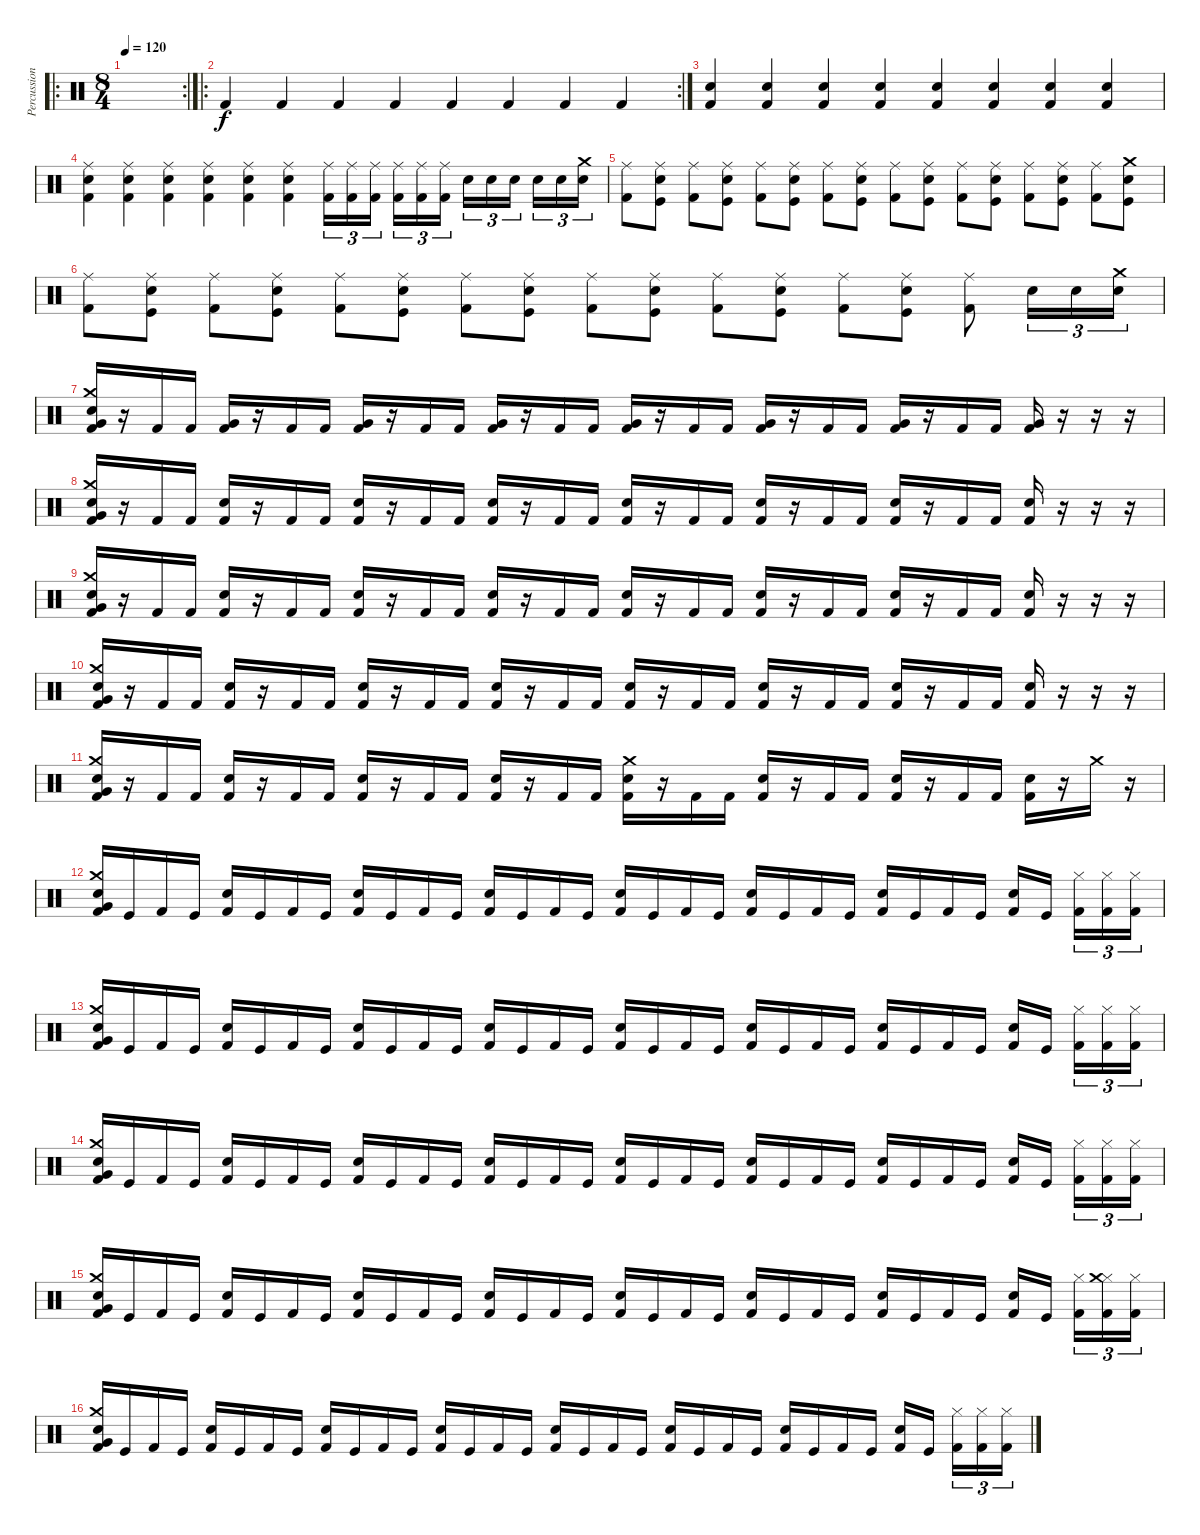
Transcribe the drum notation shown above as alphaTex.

\track ("Percussions" "Percussion") {instrument percussion}
\staff {score}
\articulation defaults
\ro
\rc 2
\ts (8 4)
\tempo 120
\clef neutral
\ks c
|
\ro
\rc 2 "Kick (hit) 2".4 "Kick (hit) 2".4 "Kick (hit) 2".4 "Kick (hit) 2".4 "Kick (hit) 2".4 "Kick (hit) 2".4 "Kick (hit) 2".4 "Kick (hit) 2".4
|
("Kick (hit) 2" "Electric Snare (hit)").4 ("Kick (hit) 2" "Electric Snare (hit)").4 ("Kick (hit) 2" "Electric Snare (hit)").4 ("Kick (hit) 2" "Electric Snare (hit)").4 ("Kick (hit) 2" "Electric Snare (hit)").4 ("Kick (hit) 2" "Electric Snare (hit)").4 ("Kick (hit) 2" "Electric Snare (hit)").4 ("Kick (hit) 2" "Electric Snare (hit)").4 |
("Kick (hit) 2" "Electric Snare (hit)" "Ride (middle)").4 ("Kick (hit) 2" "Electric Snare (hit)" "Ride (middle)").4 ("Kick (hit) 2" "Electric Snare (hit)" "Ride (middle)").4 ("Kick (hit) 2" "Electric Snare (hit)" "Ride (middle)").4 ("Kick (hit) 2" "Electric Snare (hit)" "Ride (middle)").4 ("Kick (hit) 2" "Electric Snare (hit)" "Ride (middle)").4 ("Kick (hit) 2" "Ride (middle)").16{tu (3 2)} ("Kick (hit) 2" "Ride (middle)").16{tu (3 2)} ("Kick (hit) 2" "Ride (middle)").16{tu (3 2)} ("Kick (hit) 2" "Ride (middle)").16{tu (3 2)} ("Kick (hit) 2" "Ride (middle)").16{tu (3 2)} ("Kick (hit) 2" "Ride (middle)").16{tu (3 2)} "Electric Snare (hit)".16{tu (3 2)} "Electric Snare (hit)".16{tu (3 2)} "Electric Snare (hit)".16{tu (3 2)} "Electric Snare (hit)".16{tu (3 2)} "Electric Snare (hit)".16{tu (3 2)} ("Electric Snare (hit)" "Crash medium (hit)").16{tu (3 2)} |
("Kick (hit) 2" "Ride (middle)").8 ("Electric Snare (hit)" "Ride (middle)" "Kick (hit)").8 ("Kick (hit) 2" "Ride (middle)").8 ("Electric Snare (hit)" "Ride (middle)" "Kick (hit)").8 ("Kick (hit) 2" "Ride (middle)").8 ("Electric Snare (hit)" "Ride (middle)" "Kick (hit)").8 ("Kick (hit) 2" "Ride (middle)").8 ("Electric Snare (hit)" "Ride (middle)" "Kick (hit)").8 ("Kick (hit) 2" "Ride (middle)").8 ("Electric Snare (hit)" "Ride (middle)" "Kick (hit)").8 ("Kick (hit) 2" "Ride (middle)").8 ("Electric Snare (hit)" "Ride (middle)" "Kick (hit)").8 ("Kick (hit) 2" "Ride (middle)").8 ("Electric Snare (hit)" "Ride (middle)" "Kick (hit)").8 ("Kick (hit) 2" "Ride (middle)").8 ("Electric Snare (hit)" "Crash medium (hit)" "Kick (hit)").8 |
("Kick (hit) 2" "Ride (middle)").8 ("Electric Snare (hit)" "Ride (middle)" "Kick (hit)").8 ("Kick (hit) 2" "Ride (middle)").8 ("Electric Snare (hit)" "Ride (middle)" "Kick (hit)").8 ("Kick (hit) 2" "Ride (middle)").8 ("Electric Snare (hit)" "Ride (middle)" "Kick (hit)").8 ("Kick (hit) 2" "Ride (middle)").8 ("Electric Snare (hit)" "Ride (middle)" "Kick (hit)").8 ("Kick (hit) 2" "Ride (middle)").8 ("Electric Snare (hit)" "Ride (middle)" "Kick (hit)").8 ("Kick (hit) 2" "Ride (middle)").8 ("Electric Snare (hit)" "Ride (middle)" "Kick (hit)").8 ("Kick (hit) 2" "Ride (middle)").8 ("Electric Snare (hit)" "Ride (middle)" "Kick (hit)").8 ("Kick (hit) 2" "Ride (middle)").8 "Electric Snare (hit)".16{tu (3 2)} "Electric Snare (hit)".16{tu (3 2)} ("Electric Snare (hit)" "Crash medium (hit)").16{tu (3 2)} |
("Kick (hit) 2" "Very Low Tom (hit)" "Electric Snare (hit)" "Crash medium (hit)").16 r.16 "Kick (hit) 2".16 "Kick (hit) 2".16 ("Kick (hit) 2" "Very Low Tom (hit)").16 r.16 "Kick (hit) 2".16 "Kick (hit) 2".16 ("Kick (hit) 2" "Very Low Tom (hit)").16 r.16 "Kick (hit) 2".16 "Kick (hit) 2".16 ("Kick (hit) 2" "Very Low Tom (hit)").16 r.16 "Kick (hit) 2".16 "Kick (hit) 2".16 ("Kick (hit) 2" "Very Low Tom (hit)").16 r.16 "Kick (hit) 2".16 "Kick (hit) 2".16 ("Kick (hit) 2" "Very Low Tom (hit)").16 r.16 "Kick (hit) 2".16 "Kick (hit) 2".16 ("Kick (hit) 2" "Very Low Tom (hit)").16 r.16 "Kick (hit) 2".16 "Kick (hit) 2".16 ("Kick (hit) 2" "Very Low Tom (hit)").16 r.16 r.16 r.16 |
("Kick (hit) 2" "Very Low Tom (hit)" "Crash medium (hit)" "Electric Snare (hit)").16 r.16 "Kick (hit) 2".16 "Kick (hit) 2".16 ("Kick (hit) 2" "Electric Snare (hit)").16 r.16 "Kick (hit) 2".16 "Kick (hit) 2".16 ("Kick (hit) 2" "Electric Snare (hit)").16 r.16 "Kick (hit) 2".16 "Kick (hit) 2".16 ("Kick (hit) 2" "Electric Snare (hit)").16 r.16 "Kick (hit) 2".16 "Kick (hit) 2".16 ("Kick (hit) 2" "Electric Snare (hit)").16 r.16 "Kick (hit) 2".16 "Kick (hit) 2".16 ("Kick (hit) 2" "Electric Snare (hit)").16 r.16 "Kick (hit) 2".16 "Kick (hit) 2".16 ("Kick (hit) 2" "Electric Snare (hit)").16 r.16 "Kick (hit) 2".16 "Kick (hit) 2".16 ("Kick (hit) 2" "Electric Snare (hit)").16 r.16 r.16 r.16 |
("Kick (hit) 2" "Very Low Tom (hit)" "Crash medium (hit)" "Electric Snare (hit)").16 r.16 "Kick (hit) 2".16 "Kick (hit) 2".16 ("Kick (hit) 2" "Electric Snare (hit)").16 r.16 "Kick (hit) 2".16 "Kick (hit) 2".16 ("Kick (hit) 2" "Electric Snare (hit)").16 r.16 "Kick (hit) 2".16 "Kick (hit) 2".16 ("Kick (hit) 2" "Electric Snare (hit)").16 r.16 "Kick (hit) 2".16 "Kick (hit) 2".16 ("Kick (hit) 2" "Electric Snare (hit)").16 r.16 "Kick (hit) 2".16 "Kick (hit) 2".16 ("Kick (hit) 2" "Electric Snare (hit)").16 r.16 "Kick (hit) 2".16 "Kick (hit) 2".16 ("Kick (hit) 2" "Electric Snare (hit)").16 r.16 "Kick (hit) 2".16 "Kick (hit) 2".16 ("Kick (hit) 2" "Electric Snare (hit)").16 r.16 r.16 r.16 |
("Kick (hit) 2" "Very Low Tom (hit)" "Crash medium (hit)" "Electric Snare (hit)").16 r.16 "Kick (hit) 2".16 "Kick (hit) 2".16 ("Kick (hit) 2" "Electric Snare (hit)").16 r.16 "Kick (hit) 2".16 "Kick (hit) 2".16 ("Kick (hit) 2" "Electric Snare (hit)").16 r.16 "Kick (hit) 2".16 "Kick (hit) 2".16 ("Kick (hit) 2" "Electric Snare (hit)").16 r.16 "Kick (hit) 2".16 "Kick (hit) 2".16 ("Kick (hit) 2" "Electric Snare (hit)").16 r.16 "Kick (hit) 2".16 "Kick (hit) 2".16 ("Kick (hit) 2" "Electric Snare (hit)").16 r.16 "Kick (hit) 2".16 "Kick (hit) 2".16 ("Kick (hit) 2" "Electric Snare (hit)").16 r.16 "Kick (hit) 2".16 "Kick (hit) 2".16 ("Kick (hit) 2" "Electric Snare (hit)").16 r.16 r.16 r.16 |
("Kick (hit) 2" "Very Low Tom (hit)" "Crash medium (hit)" "Electric Snare (hit)").16 r.16 "Kick (hit) 2".16 "Kick (hit) 2".16 ("Kick (hit) 2" "Electric Snare (hit)").16 r.16 "Kick (hit) 2".16 "Kick (hit) 2".16 ("Kick (hit) 2" "Electric Snare (hit)").16 r.16 "Kick (hit) 2".16 "Kick (hit) 2".16 ("Kick (hit) 2" "Electric Snare (hit)").16 r.16 "Kick (hit) 2".16 "Kick (hit) 2".16 ("Kick (hit) 2" "Electric Snare (hit)" "Crash medium (hit)").16 r.16 "Kick (hit) 2".16 "Kick (hit) 2".16 ("Kick (hit) 2" "Electric Snare (hit)").16 r.16 "Kick (hit) 2".16 "Kick (hit) 2".16 ("Kick (hit) 2" "Electric Snare (hit)").16 r.16 "Kick (hit) 2".16 "Kick (hit) 2".16 ("Kick (hit) 2" "Electric Snare (hit)").16 r.16 "Crash medium (hit)".16 r.16 |
("Kick (hit) 2" "Very Low Tom (hit)" "Crash medium (hit)" "Electric Snare (hit)").16 "Kick (hit)".16 "Kick (hit) 2".16 "Kick (hit)".16 ("Kick (hit) 2" "Electric Snare (hit)").16 "Kick (hit)".16 "Kick (hit) 2".16 "Kick (hit)".16 ("Kick (hit) 2" "Electric Snare (hit)").16 "Kick (hit)".16 "Kick (hit) 2".16 "Kick (hit)".16 ("Kick (hit) 2" "Electric Snare (hit)").16 "Kick (hit)".16 "Kick (hit) 2".16 "Kick (hit)".16 ("Kick (hit) 2" "Electric Snare (hit)").16 "Kick (hit)".16 "Kick (hit) 2".16 "Kick (hit)".16 ("Kick (hit) 2" "Electric Snare (hit)").16 "Kick (hit)".16 "Kick (hit) 2".16 "Kick (hit)".16 ("Kick (hit) 2" "Electric Snare (hit)").16 "Kick (hit)".16 "Kick (hit) 2".16 "Kick (hit)".16 ("Kick (hit) 2" "Electric Snare (hit)").16 "Kick (hit)".16 ("Kick (hit) 2" "Hi-Hat (closed)").16{tu (3 2)} ("Kick (hit) 2" "Hi-Hat (closed)").16{tu (3 2)} ("Kick (hit) 2" "Hi-Hat (closed)").16{tu (3 2)} |
("Kick (hit) 2" "Very Low Tom (hit)" "Crash medium (hit)" "Electric Snare (hit)").16 "Kick (hit)".16 "Kick (hit) 2".16 "Kick (hit)".16 ("Kick (hit) 2" "Electric Snare (hit)").16 "Kick (hit)".16 "Kick (hit) 2".16 "Kick (hit)".16 ("Kick (hit) 2" "Electric Snare (hit)").16 "Kick (hit)".16 "Kick (hit) 2".16 "Kick (hit)".16 ("Kick (hit) 2" "Electric Snare (hit)").16 "Kick (hit)".16 "Kick (hit) 2".16 "Kick (hit)".16 ("Kick (hit) 2" "Electric Snare (hit)").16 "Kick (hit)".16 "Kick (hit) 2".16 "Kick (hit)".16 ("Kick (hit) 2" "Electric Snare (hit)").16 "Kick (hit)".16 "Kick (hit) 2".16 "Kick (hit)".16 ("Kick (hit) 2" "Electric Snare (hit)").16 "Kick (hit)".16 "Kick (hit) 2".16 "Kick (hit)".16 ("Kick (hit) 2" "Electric Snare (hit)").16 "Kick (hit)".16 ("Kick (hit) 2" "Hi-Hat (closed)").16{tu (3 2)} ("Kick (hit) 2" "Hi-Hat (closed)").16{tu (3 2)} ("Kick (hit) 2" "Hi-Hat (closed)").16{tu (3 2)} |
("Kick (hit) 2" "Very Low Tom (hit)" "Crash medium (hit)" "Electric Snare (hit)").16 "Kick (hit)".16 "Kick (hit) 2".16 "Kick (hit)".16 ("Kick (hit) 2" "Electric Snare (hit)").16 "Kick (hit)".16 "Kick (hit) 2".16 "Kick (hit)".16 ("Kick (hit) 2" "Electric Snare (hit)").16 "Kick (hit)".16 "Kick (hit) 2".16 "Kick (hit)".16 ("Kick (hit) 2" "Electric Snare (hit)").16 "Kick (hit)".16 "Kick (hit) 2".16 "Kick (hit)".16 ("Kick (hit) 2" "Electric Snare (hit)").16 "Kick (hit)".16 "Kick (hit) 2".16 "Kick (hit)".16 ("Kick (hit) 2" "Electric Snare (hit)").16 "Kick (hit)".16 "Kick (hit) 2".16 "Kick (hit)".16 ("Kick (hit) 2" "Electric Snare (hit)").16 "Kick (hit)".16 "Kick (hit) 2".16 "Kick (hit)".16 ("Kick (hit) 2" "Electric Snare (hit)").16 "Kick (hit)".16 ("Kick (hit) 2" "Hi-Hat (closed)").16{tu (3 2)} ("Kick (hit) 2" "Hi-Hat (closed)").16{tu (3 2)} ("Kick (hit) 2" "Hi-Hat (closed)").16{tu (3 2)} |
("Kick (hit) 2" "Very Low Tom (hit)" "Crash medium (hit)" "Electric Snare (hit)").16 "Kick (hit)".16 "Kick (hit) 2".16 "Kick (hit)".16 ("Kick (hit) 2" "Electric Snare (hit)").16 "Kick (hit)".16 "Kick (hit) 2".16 "Kick (hit)".16 ("Kick (hit) 2" "Electric Snare (hit)").16 "Kick (hit)".16 "Kick (hit) 2".16 "Kick (hit)".16 ("Kick (hit) 2" "Electric Snare (hit)").16 "Kick (hit)".16 "Kick (hit) 2".16 "Kick (hit)".16 ("Kick (hit) 2" "Electric Snare (hit)").16 "Kick (hit)".16 "Kick (hit) 2".16 "Kick (hit)".16 ("Kick (hit) 2" "Electric Snare (hit)").16 "Kick (hit)".16 "Kick (hit) 2".16 "Kick (hit)".16 ("Kick (hit) 2" "Electric Snare (hit)").16 "Kick (hit)".16 "Kick (hit) 2".16 "Kick (hit)".16 ("Kick (hit) 2" "Electric Snare (hit)").16 "Kick (hit)".16 ("Kick (hit) 2" "Hi-Hat (closed)").16{tu (3 2)} ("Kick (hit) 2" "Hi-Hat (closed)" "Crash medium (hit)").16{tu (3 2)} ("Kick (hit) 2" "Hi-Hat (closed)").16{tu (3 2)} |
("Kick (hit) 2" "Very Low Tom (hit)" "Crash medium (hit)" "Electric Snare (hit)").16 "Kick (hit)".16 "Kick (hit) 2".16 "Kick (hit)".16 ("Kick (hit) 2" "Electric Snare (hit)").16 "Kick (hit)".16 "Kick (hit) 2".16 "Kick (hit)".16 ("Kick (hit) 2" "Electric Snare (hit)").16 "Kick (hit)".16 "Kick (hit) 2".16 "Kick (hit)".16 ("Kick (hit) 2" "Electric Snare (hit)").16 "Kick (hit)".16 "Kick (hit) 2".16 "Kick (hit)".16 ("Kick (hit) 2" "Electric Snare (hit)").16 "Kick (hit)".16 "Kick (hit) 2".16 "Kick (hit)".16 ("Kick (hit) 2" "Electric Snare (hit)").16 "Kick (hit)".16 "Kick (hit) 2".16 "Kick (hit)".16 ("Kick (hit) 2" "Electric Snare (hit)").16 "Kick (hit)".16 "Kick (hit) 2".16 "Kick (hit)".16 ("Kick (hit) 2" "Electric Snare (hit)").16 "Kick (hit)".16 ("Kick (hit) 2" "Hi-Hat (closed)").16{tu (3 2)} ("Kick (hit) 2" "Hi-Hat (closed)").16{tu (3 2)} ("Kick (hit) 2" "Hi-Hat (closed)").16{tu (3 2)}
